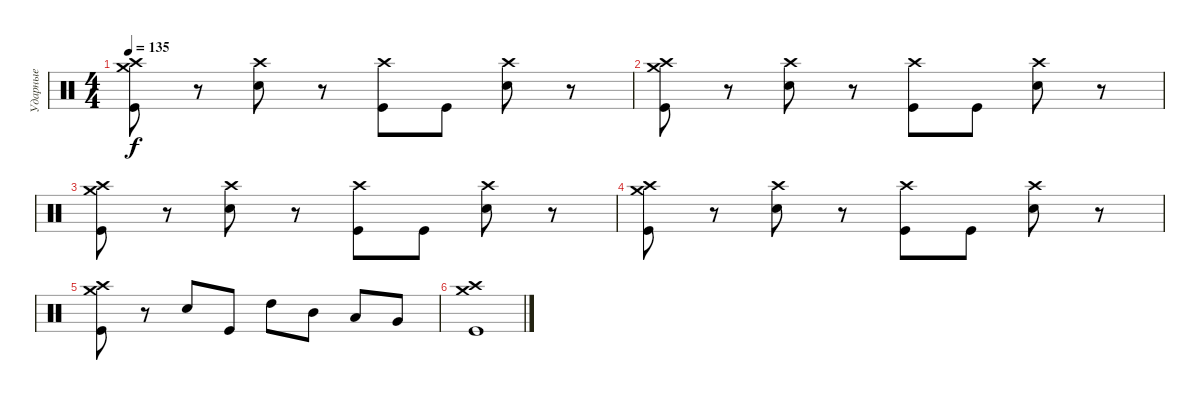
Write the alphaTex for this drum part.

\track ("Ударные" "Ударные") {instrument percussion bank 9}
\staff {score}
\articulation defaults
\ts (4 4)
\tempo 135
\clef neutral
\ks c
("Crash high (hit)" "Kick (hit)" "Crash medium (hit)").8{dy f} r.8 ("Crash high (hit)" "Electric Snare (hit)").8 r.8 ("Crash high (hit)" "Kick (hit)").8 "Kick (hit)".8 ("Crash high (hit)" "Electric Snare (hit)").8 r.8 |
("Crash high (hit)" "Kick (hit)" "Crash medium (hit)").8 r.8 ("Crash high (hit)" "Electric Snare (hit)").8 r.8 ("Crash high (hit)" "Kick (hit)").8 "Kick (hit)".8 ("Crash high (hit)" "Electric Snare (hit)").8 r.8 |
("Crash high (hit)" "Kick (hit)" "Crash medium (hit)").8 r.8 ("Crash high (hit)" "Electric Snare (hit)").8 r.8 ("Crash high (hit)" "Kick (hit)").8 "Kick (hit)".8 ("Crash high (hit)" "Electric Snare (hit)").8 r.8 |
("Crash high (hit)" "Kick (hit)" "Crash medium (hit)").8 r.8 ("Crash high (hit)" "Electric Snare (hit)").8 r.8 ("Crash high (hit)" "Kick (hit)").8 "Kick (hit)".8 ("Crash high (hit)" "Electric Snare (hit)").8 r.8 |
("Crash high (hit)" "Kick (hit)" "Crash medium (hit)").8 r.8 "Electric Snare (hit)".8 "Kick (hit)".8 "High Tom (hit)".8 "Mid Tom (hit)".8 "Low Tom (hit)".8 "Very Low Tom (hit)".8 |
("Crash high (hit)" "Kick (hit)" "Crash medium (hit)").1
